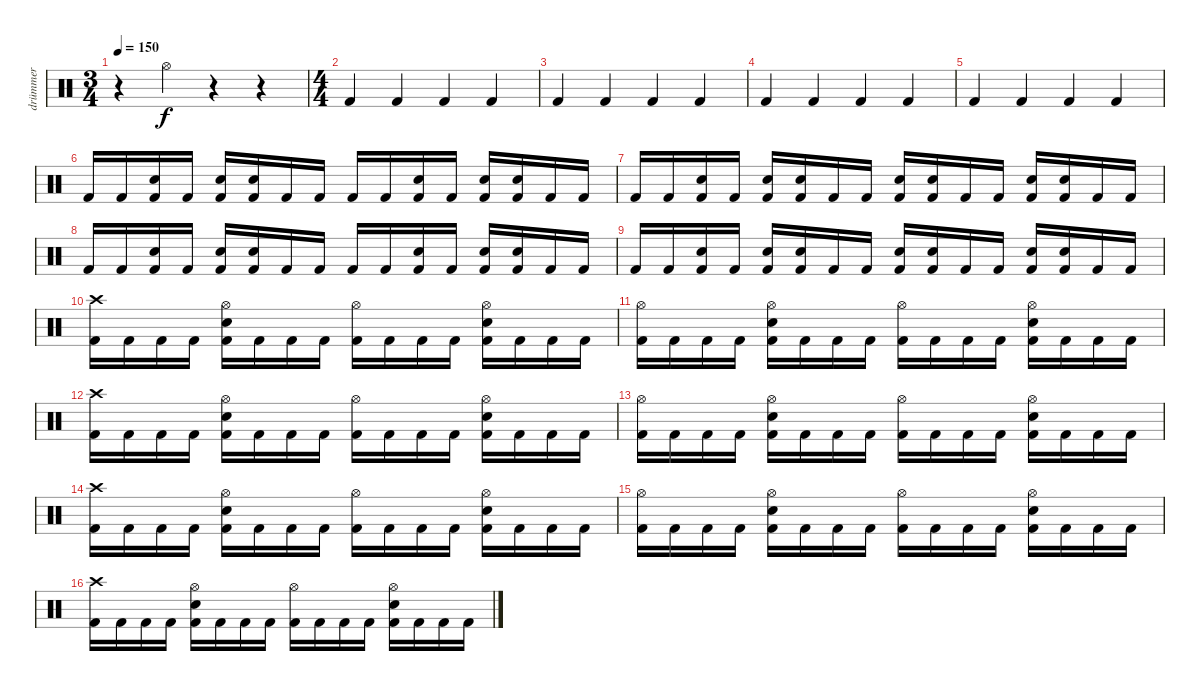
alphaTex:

\track ("drümmer" "drümmer") {instrument percussion}
\staff {score}
\articulation defaults
\ts (3 4)
\tempo 150
\clef neutral
\ks c
r.4{dy f} "Hi-Hat (open)".4 r.4 r.4 |
\ts (4 4)
"Kick (hit) 2".4 "Kick (hit) 2".4 "Kick (hit) 2".4 "Kick (hit) 2".4 |
"Kick (hit) 2".4 "Kick (hit) 2".4 "Kick (hit) 2".4 "Kick (hit) 2".4 |
"Kick (hit) 2".4 "Kick (hit) 2".4 "Kick (hit) 2".4 "Kick (hit) 2".4 |
"Kick (hit) 2".4 "Kick (hit) 2".4 "Kick (hit) 2".4 "Kick (hit) 2".4 |
"Kick (hit) 2".16 "Kick (hit) 2".16 ("Snare (hit) 2" "Kick (hit) 2").16 "Kick (hit) 2".16 ("Snare (hit) 2" "Kick (hit) 2").16 ("Snare (hit) 2" "Kick (hit) 2").16 "Kick (hit) 2".16 "Kick (hit) 2".16 "Kick (hit) 2".16 "Kick (hit) 2".16 ("Snare (hit) 2" "Kick (hit) 2").16 "Kick (hit) 2".16 ("Snare (hit) 2" "Kick (hit) 2").16 ("Snare (hit) 2" "Kick (hit) 2").16 "Kick (hit) 2".16 "Kick (hit) 2".16 |
"Kick (hit) 2".16 "Kick (hit) 2".16 ("Snare (hit) 2" "Kick (hit) 2").16 "Kick (hit) 2".16 ("Snare (hit) 2" "Kick (hit) 2").16 ("Snare (hit) 2" "Kick (hit) 2").16 "Kick (hit) 2".16 "Kick (hit) 2".16 ("Snare (hit) 2" "Kick (hit) 2").16 ("Snare (hit) 2" "Kick (hit) 2").16 "Kick (hit) 2".16 "Kick (hit) 2".16 ("Snare (hit) 2" "Kick (hit) 2").16 ("Snare (hit) 2" "Kick (hit) 2").16 "Kick (hit) 2".16 "Kick (hit) 2".16 |
"Kick (hit) 2".16 "Kick (hit) 2".16 ("Snare (hit) 2" "Kick (hit) 2").16 "Kick (hit) 2".16 ("Snare (hit) 2" "Kick (hit) 2").16 ("Snare (hit) 2" "Kick (hit) 2").16 "Kick (hit) 2".16 "Kick (hit) 2".16 "Kick (hit) 2".16 "Kick (hit) 2".16 ("Snare (hit) 2" "Kick (hit) 2").16 "Kick (hit) 2".16 ("Snare (hit) 2" "Kick (hit) 2").16 ("Snare (hit) 2" "Kick (hit) 2").16 "Kick (hit) 2".16 "Kick (hit) 2".16 |
"Kick (hit) 2".16 "Kick (hit) 2".16 ("Snare (hit) 2" "Kick (hit) 2").16 "Kick (hit) 2".16 ("Snare (hit) 2" "Kick (hit) 2").16 ("Snare (hit) 2" "Kick (hit) 2").16 "Kick (hit) 2".16 "Kick (hit) 2".16 ("Snare (hit) 2" "Kick (hit) 2").16 ("Snare (hit) 2" "Kick (hit) 2").16 "Kick (hit) 2".16 "Kick (hit) 2".16 ("Snare (hit) 2" "Kick (hit) 2").16 ("Snare (hit) 2" "Kick (hit) 2").16 "Kick (hit) 2".16 "Kick (hit) 2".16 |
("Crash high (hit)" "Kick (hit) 2").16 "Kick (hit) 2".16 "Kick (hit) 2".16 "Kick (hit) 2".16 ("Hi-Hat (open)" "Snare (hit) 2" "Kick (hit) 2").16 "Kick (hit) 2".16 "Kick (hit) 2".16 "Kick (hit) 2".16 ("Hi-Hat (open)" "Kick (hit) 2").16 "Kick (hit) 2".16 "Kick (hit) 2".16 "Kick (hit) 2".16 ("Hi-Hat (open)" "Snare (hit) 2" "Kick (hit) 2").16 "Kick (hit) 2".16 "Kick (hit) 2".16 "Kick (hit) 2".16 |
("Hi-Hat (open)" "Kick (hit) 2").16 "Kick (hit) 2".16 "Kick (hit) 2".16 "Kick (hit) 2".16 ("Hi-Hat (open)" "Snare (hit) 2" "Kick (hit) 2").16 "Kick (hit) 2".16 "Kick (hit) 2".16 "Kick (hit) 2".16 ("Hi-Hat (open)" "Kick (hit) 2").16 "Kick (hit) 2".16 "Kick (hit) 2".16 "Kick (hit) 2".16 ("Hi-Hat (open)" "Snare (hit) 2" "Kick (hit) 2").16 "Kick (hit) 2".16 "Kick (hit) 2".16 "Kick (hit) 2".16 |
("Crash high (hit)" "Kick (hit) 2").16 "Kick (hit) 2".16 "Kick (hit) 2".16 "Kick (hit) 2".16 ("Hi-Hat (open)" "Snare (hit) 2" "Kick (hit) 2").16 "Kick (hit) 2".16 "Kick (hit) 2".16 "Kick (hit) 2".16 ("Hi-Hat (open)" "Kick (hit) 2").16 "Kick (hit) 2".16 "Kick (hit) 2".16 "Kick (hit) 2".16 ("Hi-Hat (open)" "Snare (hit) 2" "Kick (hit) 2").16 "Kick (hit) 2".16 "Kick (hit) 2".16 "Kick (hit) 2".16 |
("Hi-Hat (open)" "Kick (hit) 2").16 "Kick (hit) 2".16 "Kick (hit) 2".16 "Kick (hit) 2".16 ("Hi-Hat (open)" "Snare (hit) 2" "Kick (hit) 2").16 "Kick (hit) 2".16 "Kick (hit) 2".16 "Kick (hit) 2".16 ("Hi-Hat (open)" "Kick (hit) 2").16 "Kick (hit) 2".16 "Kick (hit) 2".16 "Kick (hit) 2".16 ("Hi-Hat (open)" "Snare (hit) 2" "Kick (hit) 2").16 "Kick (hit) 2".16 "Kick (hit) 2".16 "Kick (hit) 2".16 |
("Crash high (hit)" "Kick (hit) 2").16 "Kick (hit) 2".16 "Kick (hit) 2".16 "Kick (hit) 2".16 ("Hi-Hat (open)" "Snare (hit) 2" "Kick (hit) 2").16 "Kick (hit) 2".16 "Kick (hit) 2".16 "Kick (hit) 2".16 ("Hi-Hat (open)" "Kick (hit) 2").16 "Kick (hit) 2".16 "Kick (hit) 2".16 "Kick (hit) 2".16 ("Hi-Hat (open)" "Snare (hit) 2" "Kick (hit) 2").16 "Kick (hit) 2".16 "Kick (hit) 2".16 "Kick (hit) 2".16 |
("Hi-Hat (open)" "Kick (hit) 2").16 "Kick (hit) 2".16 "Kick (hit) 2".16 "Kick (hit) 2".16 ("Hi-Hat (open)" "Snare (hit) 2" "Kick (hit) 2").16 "Kick (hit) 2".16 "Kick (hit) 2".16 "Kick (hit) 2".16 ("Hi-Hat (open)" "Kick (hit) 2").16 "Kick (hit) 2".16 "Kick (hit) 2".16 "Kick (hit) 2".16 ("Hi-Hat (open)" "Snare (hit) 2" "Kick (hit) 2").16 "Kick (hit) 2".16 "Kick (hit) 2".16 "Kick (hit) 2".16 |
("Crash high (hit)" "Kick (hit) 2").16 "Kick (hit) 2".16 "Kick (hit) 2".16 "Kick (hit) 2".16 ("Hi-Hat (open)" "Snare (hit) 2" "Kick (hit) 2").16 "Kick (hit) 2".16 "Kick (hit) 2".16 "Kick (hit) 2".16 ("Hi-Hat (open)" "Kick (hit) 2").16 "Kick (hit) 2".16 "Kick (hit) 2".16 "Kick (hit) 2".16 ("Hi-Hat (open)" "Snare (hit) 2" "Kick (hit) 2").16 "Kick (hit) 2".16 "Kick (hit) 2".16 "Kick (hit) 2".16
